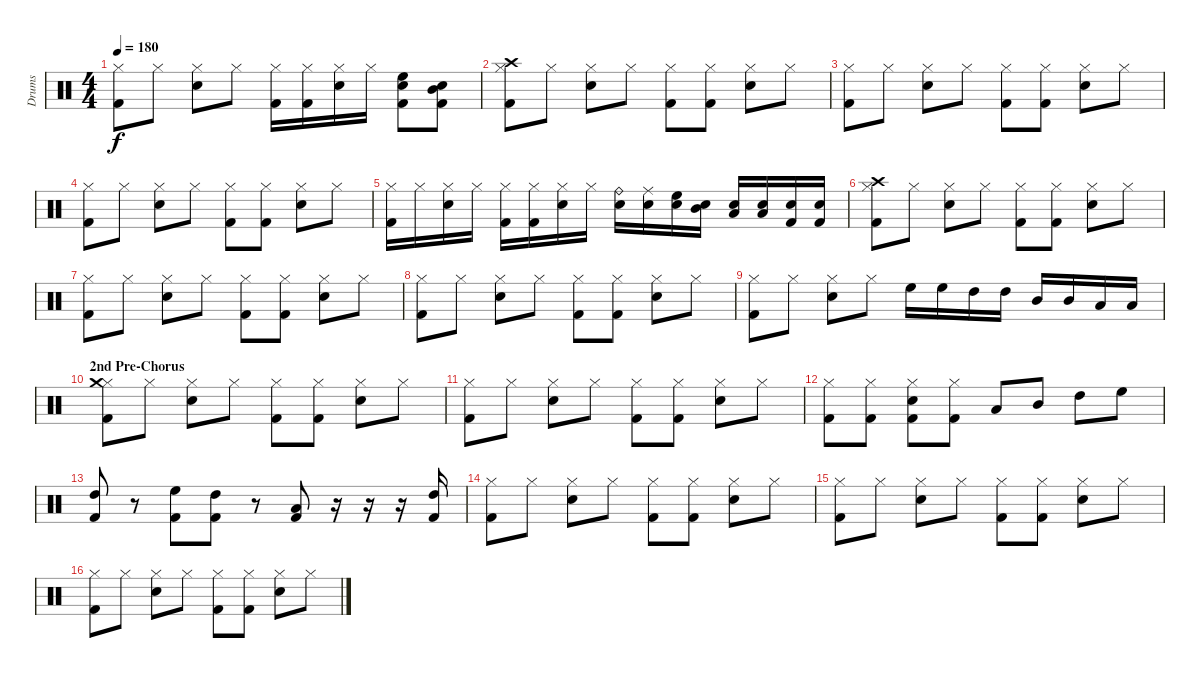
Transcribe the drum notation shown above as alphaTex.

\track ("Drums" "Drums") {instrument percussion}
\staff {score}
\articulation defaults
\ts (4 4)
\tempo 180
\clef neutral
\ks c
("Hi-Hat (closed)" "Kick (hit) 2").8{dy f} "Hi-Hat (closed)".8 ("Hi-Hat (closed)" "Snare (hit) 2").8 "Hi-Hat (closed)".8 ("Hi-Hat (closed)" "Kick (hit) 2").16 ("Hi-Hat (closed)" "Kick (hit) 2").16 ("Hi-Hat (closed)" "Snare (hit) 2").16 "Hi-Hat (closed)".16 ("High Floor Tom (hit)" "Snare (hit) 2" "Kick (hit) 2").8 ("Mid Tom (hit)" "Snare (hit) 2" "Kick (hit) 2").8 |
("Hi-Hat (closed)" "Crash high (hit)" "Kick (hit) 2").8 "Hi-Hat (closed)".8 ("Hi-Hat (closed)" "Snare (hit) 2").8 "Hi-Hat (closed)".8 ("Hi-Hat (closed)" "Kick (hit) 2").8 ("Hi-Hat (closed)" "Kick (hit) 2").8 ("Hi-Hat (closed)" "Snare (hit) 2").8 "Hi-Hat (closed)".8 |
("Hi-Hat (closed)" "Kick (hit) 2").8 "Hi-Hat (closed)".8 ("Hi-Hat (closed)" "Snare (hit) 2").8 "Hi-Hat (closed)".8 ("Hi-Hat (closed)" "Kick (hit) 2").8 ("Hi-Hat (closed)" "Kick (hit) 2").8 ("Hi-Hat (closed)" "Snare (hit) 2").8 "Hi-Hat (closed)".8 |
("Hi-Hat (closed)" "Kick (hit) 2").8 "Hi-Hat (closed)".8 ("Hi-Hat (closed)" "Snare (hit) 2").8 "Hi-Hat (closed)".8 ("Hi-Hat (closed)" "Kick (hit) 2").8 ("Hi-Hat (closed)" "Kick (hit) 2").8 ("Hi-Hat (closed)" "Snare (hit) 2").8 "Hi-Hat (closed)".8 |
("Hi-Hat (closed)" "Kick (hit) 2").16 "Hi-Hat (closed)".16 ("Hi-Hat (closed)" "Snare (hit) 2").16 "Hi-Hat (closed)".16 ("Hi-Hat (closed)" "Kick (hit) 2").16 ("Hi-Hat (closed)" "Kick (hit) 2").16 ("Hi-Hat (closed)" "Snare (hit) 2").16 "Hi-Hat (closed)".16 ("Ride (bell)" "Snare (hit) 2").16 ("Ride (middle)" "Snare (hit) 2").16 ("High Floor Tom (hit)" "Snare (hit) 2").16 ("Mid Tom (hit)" "Snare (hit) 2").16 ("Low Tom (hit)" "Snare (hit) 2").16 ("Low Floor Tom (hit)" "Snare (hit) 2").16 ("Kick (hit) 2" "Snare (hit) 2").16 ("Kick (hit) 2" "Snare (hit) 2").16 |
("Hi-Hat (closed)" "Crash high (hit)" "Kick (hit) 2").8 "Hi-Hat (closed)".8 ("Hi-Hat (closed)" "Snare (hit) 2").8 "Hi-Hat (closed)".8 ("Hi-Hat (closed)" "Kick (hit) 2").8 ("Hi-Hat (closed)" "Kick (hit) 2").8 ("Hi-Hat (closed)" "Snare (hit) 2").8 "Hi-Hat (closed)".8 |
("Hi-Hat (closed)" "Kick (hit) 2").8 "Hi-Hat (closed)".8 ("Hi-Hat (closed)" "Snare (hit) 2").8 "Hi-Hat (closed)".8 ("Hi-Hat (closed)" "Kick (hit) 2").8 ("Hi-Hat (closed)" "Kick (hit) 2").8 ("Hi-Hat (closed)" "Snare (hit) 2").8 "Hi-Hat (closed)".8 |
("Hi-Hat (closed)" "Kick (hit) 2").8 "Hi-Hat (closed)".8 ("Hi-Hat (closed)" "Snare (hit) 2").8 "Hi-Hat (closed)".8 ("Hi-Hat (closed)" "Kick (hit) 2").8 ("Hi-Hat (closed)" "Kick (hit) 2").8 ("Hi-Hat (closed)" "Snare (hit) 2").8 "Hi-Hat (closed)".8 |
("Hi-Hat (closed)" "Kick (hit) 2").8 "Hi-Hat (closed)".8 ("Hi-Hat (closed)" "Snare (hit) 2").8 "Hi-Hat (closed)".8 "High Floor Tom (hit)".16 "High Floor Tom (hit)".16 "High Tom (hit)".16 "High Tom (hit)".16 "Mid Tom (hit)".16 "Mid Tom (hit)".16 "Low Tom (hit)".16 "Low Tom (hit)".16 |
\section ("" "2nd Pre-Chorus")
("Hi-Hat (closed)" "Crash medium (hit)" "Kick (hit) 2").8 "Hi-Hat (closed)".8 ("Hi-Hat (closed)" "Snare (hit) 2").8 "Hi-Hat (closed)".8 ("Hi-Hat (closed)" "Kick (hit) 2").8 ("Hi-Hat (closed)" "Kick (hit) 2").8 ("Hi-Hat (closed)" "Snare (hit) 2").8 "Hi-Hat (closed)".8 |
("Hi-Hat (closed)" "Kick (hit) 2").8 "Hi-Hat (closed)".8 ("Hi-Hat (closed)" "Snare (hit) 2").8 "Hi-Hat (closed)".8 ("Hi-Hat (closed)" "Kick (hit) 2").8 ("Hi-Hat (closed)" "Kick (hit) 2").8 ("Hi-Hat (closed)" "Snare (hit) 2").8 "Hi-Hat (closed)".8 |
("Hi-Hat (closed)" "Kick (hit) 2").8 ("Hi-Hat (closed)" "Kick (hit) 2").8 ("Hi-Hat (closed)" "Snare (hit) 2" "Kick (hit) 2").8 ("Hi-Hat (closed)" "Kick (hit) 2").8 "Low Tom (hit)".8 "Mid Tom (hit)".8 "High Tom (hit)".8 "High Floor Tom (hit)".8 |
("High Tom (hit)" "Kick (hit) 2").8 r.8 ("High Floor Tom (hit)" "Kick (hit) 2").8 ("High Tom (hit)" "Kick (hit) 2").8 r.8 ("Low Floor Tom (hit)" "Kick (hit) 2").8 r.16 r.16 r.16 ("High Tom (hit)" "Kick (hit) 2").16 |
("Hi-Hat (closed)" "Kick (hit) 2").8 "Hi-Hat (closed)".8 ("Hi-Hat (closed)" "Snare (hit) 2").8 "Hi-Hat (closed)".8 ("Hi-Hat (closed)" "Kick (hit) 2").8 ("Hi-Hat (closed)" "Kick (hit) 2").8 ("Hi-Hat (closed)" "Snare (hit) 2").8 "Hi-Hat (closed)".8 |
("Hi-Hat (closed)" "Kick (hit) 2").8 "Hi-Hat (closed)".8 ("Hi-Hat (closed)" "Snare (hit) 2").8 "Hi-Hat (closed)".8 ("Hi-Hat (closed)" "Kick (hit) 2").8 ("Hi-Hat (closed)" "Kick (hit) 2").8 ("Hi-Hat (closed)" "Snare (hit) 2").8 "Hi-Hat (closed)".8 |
("Hi-Hat (closed)" "Kick (hit) 2").8 "Hi-Hat (closed)".8 ("Hi-Hat (closed)" "Snare (hit) 2").8 "Hi-Hat (closed)".8 ("Hi-Hat (closed)" "Kick (hit) 2").8 ("Hi-Hat (closed)" "Kick (hit) 2").8 ("Hi-Hat (closed)" "Snare (hit) 2").8 "Hi-Hat (closed)".8
